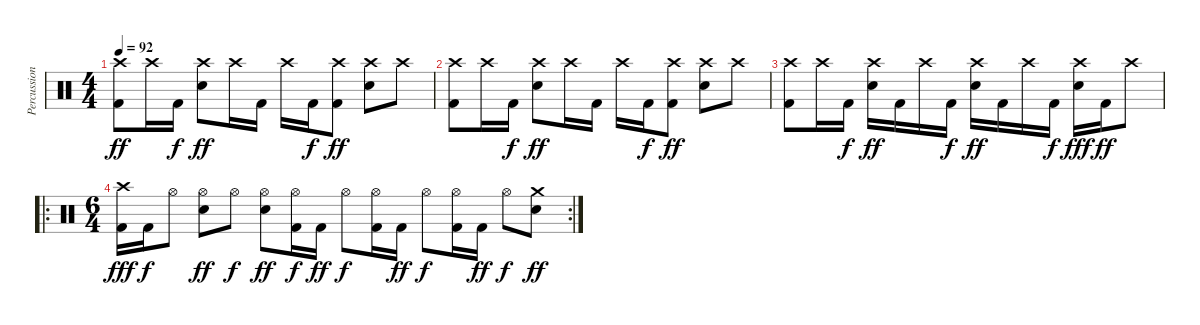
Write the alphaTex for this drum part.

\track ("Percussions" "Percussion") {instrument percussion}
\staff {score}
\articulation defaults
\ts (4 4)
\tempo 92
\clef neutral
\ks c
("Crash high (hit)" "Kick (hit) 2").8{dy ff} "Crash high (hit)".16 "Kick (hit) 2".16{dy f} ("Crash high (hit)" "Electric Snare (hit)").8{dy ff} "Crash high (hit)".16 "Kick (hit) 2".16 "Crash high (hit)".16 "Kick (hit) 2".16{dy f} ("Crash high (hit)" "Kick (hit) 2").8{dy ff} ("Crash high (hit)" "Electric Snare (hit)").8 "Crash high (hit)".8 |
("Crash high (hit)" "Kick (hit) 2").8 "Crash high (hit)".16 "Kick (hit) 2".16{dy f} ("Crash high (hit)" "Electric Snare (hit)").8{dy ff} "Crash high (hit)".16 "Kick (hit) 2".16 "Crash high (hit)".16 "Kick (hit) 2".16{dy f} ("Crash high (hit)" "Kick (hit) 2").8{dy ff} ("Crash high (hit)" "Electric Snare (hit)").8 "Crash high (hit)".8 |
("Crash high (hit)" "Kick (hit) 2").8 "Crash high (hit)".16 "Kick (hit) 2".16{dy f} ("Crash high (hit)" "Electric Snare (hit)").16{dy ff} "Kick (hit) 2".16 "Crash high (hit)".16 "Kick (hit) 2".16{dy f} ("Crash high (hit)" "Electric Snare (hit)").16{dy ff} "Kick (hit) 2".16 "Crash high (hit)".16 "Kick (hit) 2".16{dy f} ("Crash high (hit)" "Electric Snare (hit)").16{dy fff} "Kick (hit) 2".16{dy ff} "Crash high (hit)".8 |
\ro
\rc 2
\ts (6 4)
("Crash high (hit)" "Kick (hit) 2").16{dy fff} "Kick (hit) 2".16{dy f} "Hi-Hat (open)".8 ("Hi-Hat (open)" "Electric Snare (hit)").8{dy ff} "Hi-Hat (open)".8{dy f} ("Hi-Hat (open)" "Electric Snare (hit)").8{dy ff} ("Hi-Hat (open)" "Kick (hit) 2").16{dy f} "Kick (hit) 2".16{dy ff} "Hi-Hat (open)".8{dy f} ("Hi-Hat (open)" "Kick (hit) 2").16 "Kick (hit) 2".16{dy ff} "Hi-Hat (open)".8{dy f} ("Hi-Hat (open)" "Kick (hit) 2").16 "Kick (hit) 2".16{dy ff} "Hi-Hat (open)".8{dy f} ("Crash medium (hit)" "Electric Snare (hit)").8{dy ff}
